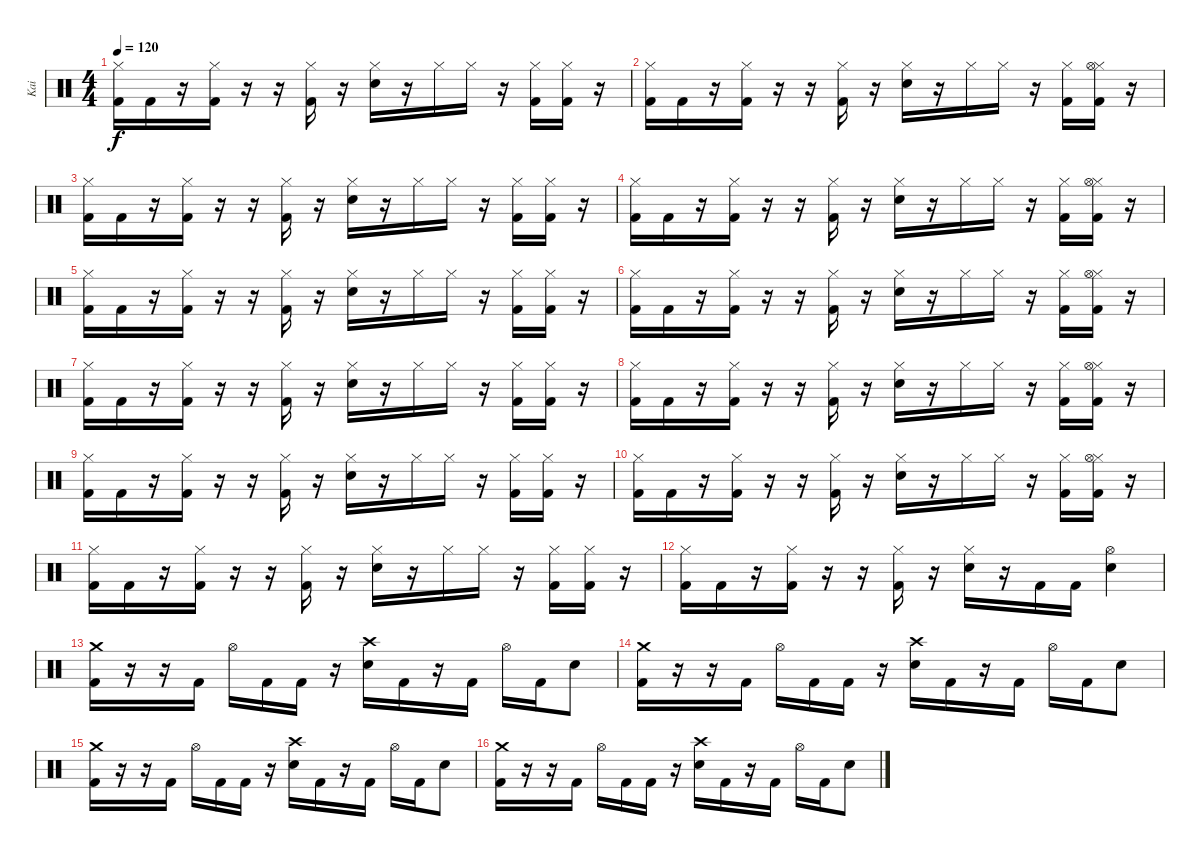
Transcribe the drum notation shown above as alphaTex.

\track ("Kai" "Kai") {instrument percussion}
\staff {score}
\articulation defaults
\ts (4 4)
\tempo 120
\clef neutral
\ks c
("Hi-Hat (closed)" "Kick (hit) 2").16{dy f} "Kick (hit) 2".16 r.16 ("Hi-Hat (closed)" "Kick (hit) 2").16 r.16 r.16 ("Hi-Hat (closed)" "Kick (hit) 2").16 r.16 ("Hi-Hat (closed)" "Electric Snare (hit)").16 r.16 "Hi-Hat (closed)".16 "Hi-Hat (closed)".16 r.16 ("Hi-Hat (closed)" "Kick (hit) 2").16 ("Hi-Hat (closed)" "Kick (hit) 2").16 r.16 |
("Hi-Hat (closed)" "Kick (hit) 2").16 "Kick (hit) 2".16 r.16 ("Hi-Hat (closed)" "Kick (hit) 2").16 r.16 r.16 ("Hi-Hat (closed)" "Kick (hit) 2").16 r.16 ("Hi-Hat (closed)" "Electric Snare (hit)").16 r.16 "Hi-Hat (closed)".16 "Hi-Hat (closed)".16 r.16 ("Hi-Hat (closed)" "Kick (hit) 2").16 ("Hi-Hat (closed)" "Hi-Hat (open)" "Kick (hit) 2").16 r.16 |
("Hi-Hat (closed)" "Kick (hit) 2").16 "Kick (hit) 2".16 r.16 ("Hi-Hat (closed)" "Kick (hit) 2").16 r.16 r.16 ("Hi-Hat (closed)" "Kick (hit) 2").16 r.16 ("Hi-Hat (closed)" "Electric Snare (hit)").16 r.16 "Hi-Hat (closed)".16 "Hi-Hat (closed)".16 r.16 ("Hi-Hat (closed)" "Kick (hit) 2").16 ("Hi-Hat (closed)" "Kick (hit) 2").16 r.16 |
("Hi-Hat (closed)" "Kick (hit) 2").16 "Kick (hit) 2".16 r.16 ("Hi-Hat (closed)" "Kick (hit) 2").16 r.16 r.16 ("Hi-Hat (closed)" "Kick (hit) 2").16 r.16 ("Hi-Hat (closed)" "Electric Snare (hit)").16 r.16 "Hi-Hat (closed)".16 "Hi-Hat (closed)".16 r.16 ("Hi-Hat (closed)" "Kick (hit) 2").16 ("Hi-Hat (closed)" "Hi-Hat (open)" "Kick (hit) 2").16 r.16 |
("Hi-Hat (closed)" "Kick (hit) 2").16 "Kick (hit) 2".16 r.16 ("Hi-Hat (closed)" "Kick (hit) 2").16 r.16 r.16 ("Hi-Hat (closed)" "Kick (hit) 2").16 r.16 ("Hi-Hat (closed)" "Electric Snare (hit)").16 r.16 "Hi-Hat (closed)".16 "Hi-Hat (closed)".16 r.16 ("Hi-Hat (closed)" "Kick (hit) 2").16 ("Hi-Hat (closed)" "Kick (hit) 2").16 r.16 |
("Hi-Hat (closed)" "Kick (hit) 2").16 "Kick (hit) 2".16 r.16 ("Hi-Hat (closed)" "Kick (hit) 2").16 r.16 r.16 ("Hi-Hat (closed)" "Kick (hit) 2").16 r.16 ("Hi-Hat (closed)" "Electric Snare (hit)").16 r.16 "Hi-Hat (closed)".16 "Hi-Hat (closed)".16 r.16 ("Hi-Hat (closed)" "Kick (hit) 2").16 ("Hi-Hat (closed)" "Hi-Hat (open)" "Kick (hit) 2").16 r.16 |
("Hi-Hat (closed)" "Kick (hit) 2").16 "Kick (hit) 2".16 r.16 ("Hi-Hat (closed)" "Kick (hit) 2").16 r.16 r.16 ("Hi-Hat (closed)" "Kick (hit) 2").16 r.16 ("Hi-Hat (closed)" "Electric Snare (hit)").16 r.16 "Hi-Hat (closed)".16 "Hi-Hat (closed)".16 r.16 ("Hi-Hat (closed)" "Kick (hit) 2").16 ("Hi-Hat (closed)" "Kick (hit) 2").16 r.16 |
("Hi-Hat (closed)" "Kick (hit) 2").16 "Kick (hit) 2".16 r.16 ("Hi-Hat (closed)" "Kick (hit) 2").16 r.16 r.16 ("Hi-Hat (closed)" "Kick (hit) 2").16 r.16 ("Hi-Hat (closed)" "Electric Snare (hit)").16 r.16 "Hi-Hat (closed)".16 "Hi-Hat (closed)".16 r.16 ("Hi-Hat (closed)" "Kick (hit) 2").16 ("Hi-Hat (closed)" "Hi-Hat (open)" "Kick (hit) 2").16 r.16 |
("Hi-Hat (closed)" "Kick (hit) 2").16 "Kick (hit) 2".16 r.16 ("Hi-Hat (closed)" "Kick (hit) 2").16 r.16 r.16 ("Hi-Hat (closed)" "Kick (hit) 2").16 r.16 ("Hi-Hat (closed)" "Electric Snare (hit)").16 r.16 "Hi-Hat (closed)".16 "Hi-Hat (closed)".16 r.16 ("Hi-Hat (closed)" "Kick (hit) 2").16 ("Hi-Hat (closed)" "Kick (hit) 2").16 r.16 |
("Hi-Hat (closed)" "Kick (hit) 2").16 "Kick (hit) 2".16 r.16 ("Hi-Hat (closed)" "Kick (hit) 2").16 r.16 r.16 ("Hi-Hat (closed)" "Kick (hit) 2").16 r.16 ("Hi-Hat (closed)" "Electric Snare (hit)").16 r.16 "Hi-Hat (closed)".16 "Hi-Hat (closed)".16 r.16 ("Hi-Hat (closed)" "Kick (hit) 2").16 ("Hi-Hat (closed)" "Hi-Hat (open)" "Kick (hit) 2").16 r.16 |
("Hi-Hat (closed)" "Kick (hit) 2").16 "Kick (hit) 2".16 r.16 ("Hi-Hat (closed)" "Kick (hit) 2").16 r.16 r.16 ("Hi-Hat (closed)" "Kick (hit) 2").16 r.16 ("Hi-Hat (closed)" "Electric Snare (hit)").16 r.16 "Hi-Hat (closed)".16 "Hi-Hat (closed)".16 r.16 ("Hi-Hat (closed)" "Kick (hit) 2").16 ("Hi-Hat (closed)" "Kick (hit) 2").16 r.16 |
("Hi-Hat (closed)" "Kick (hit) 2").16 "Kick (hit) 2".16 r.16 ("Hi-Hat (closed)" "Kick (hit) 2").16 r.16 r.16 ("Hi-Hat (closed)" "Kick (hit) 2").16 r.16 ("Hi-Hat (closed)" "Electric Snare (hit)").16 r.16 "Kick (hit) 2".16 "Kick (hit) 2".16 ("Hi-Hat (open)" "Electric Snare (hit)").4 |
("Crash medium (hit)" "Kick (hit) 2").16 r.16 r.16 "Kick (hit) 2".16 "Hi-Hat (open)".16 "Kick (hit) 2".16 "Kick (hit) 2".16 r.16 ("Crash high (hit)" "Electric Snare (hit)").16 "Kick (hit) 2".16 r.16 "Kick (hit) 2".16 "Hi-Hat (open)".16 "Kick (hit) 2".16 "Electric Snare (hit)".8 |
("Crash medium (hit)" "Kick (hit) 2").16 r.16 r.16 "Kick (hit) 2".16 "Hi-Hat (open)".16 "Kick (hit) 2".16 "Kick (hit) 2".16 r.16 ("Crash high (hit)" "Electric Snare (hit)").16 "Kick (hit) 2".16 r.16 "Kick (hit) 2".16 "Hi-Hat (open)".16 "Kick (hit) 2".16 "Electric Snare (hit)".8 |
("Crash medium (hit)" "Kick (hit) 2").16 r.16 r.16 "Kick (hit) 2".16 "Hi-Hat (open)".16 "Kick (hit) 2".16 "Kick (hit) 2".16 r.16 ("Crash high (hit)" "Electric Snare (hit)").16 "Kick (hit) 2".16 r.16 "Kick (hit) 2".16 "Hi-Hat (open)".16 "Kick (hit) 2".16 "Electric Snare (hit)".8 |
("Crash medium (hit)" "Kick (hit) 2").16 r.16 r.16 "Kick (hit) 2".16 "Hi-Hat (open)".16 "Kick (hit) 2".16 "Kick (hit) 2".16 r.16 ("Crash high (hit)" "Electric Snare (hit)").16 "Kick (hit) 2".16 r.16 "Kick (hit) 2".16 "Hi-Hat (open)".16 "Kick (hit) 2".16 "Electric Snare (hit)".8
